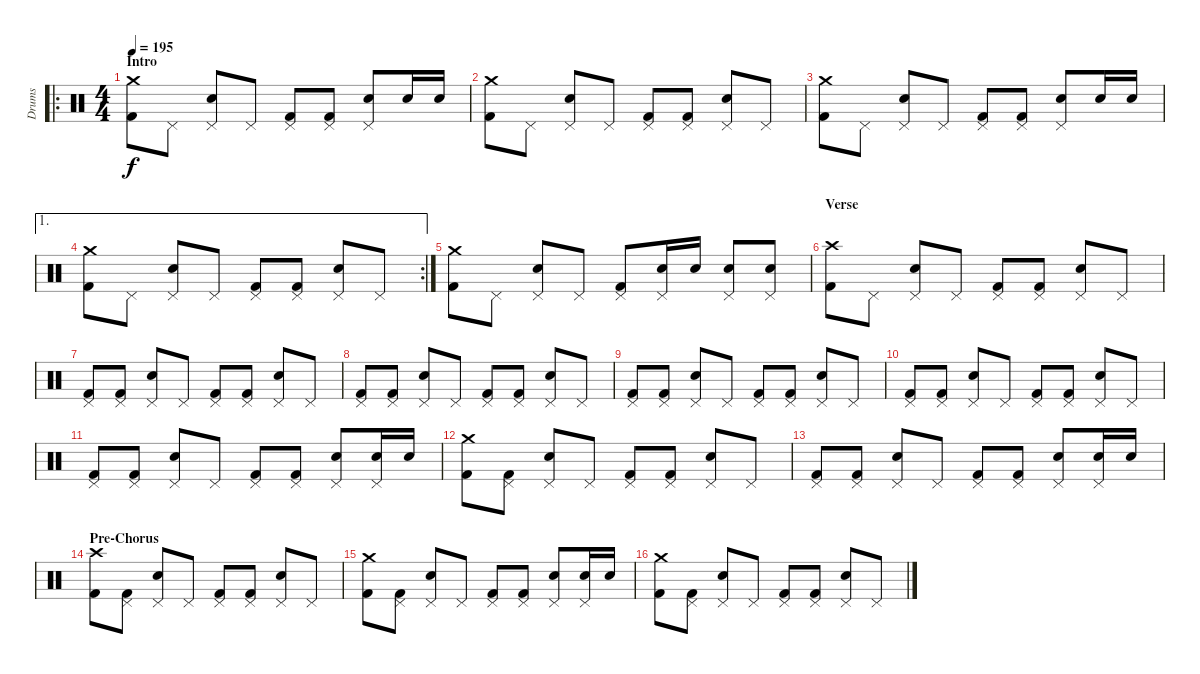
\track ("Drums" "Drums") {instrument percussion}
\staff {score}
\articulation defaults
\ro
\ts (4 4)
\section ("" "Intro")
\tempo 195
\clef neutral
\ks c
("Crash medium (hit)" "Kick (hit) 2").8{dy f} "Pedal Hi-Hat (hit)".8 ("Pedal Hi-Hat (hit)" "Electric Snare (hit)").8 "Pedal Hi-Hat (hit)".8 ("Pedal Hi-Hat (hit)" "Kick (hit) 2").8 ("Pedal Hi-Hat (hit)" "Kick (hit) 2").8 ("Pedal Hi-Hat (hit)" "Electric Snare (hit)").8 "Electric Snare (hit)".16 "Electric Snare (hit)".16 |
("Crash medium (hit)" "Kick (hit) 2").8 "Pedal Hi-Hat (hit)".8 ("Pedal Hi-Hat (hit)" "Electric Snare (hit)").8 "Pedal Hi-Hat (hit)".8 ("Pedal Hi-Hat (hit)" "Kick (hit) 2").8 ("Pedal Hi-Hat (hit)" "Kick (hit) 2").8 ("Pedal Hi-Hat (hit)" "Electric Snare (hit)").8 "Pedal Hi-Hat (hit)".8 |
("Crash medium (hit)" "Kick (hit) 2").8 "Pedal Hi-Hat (hit)".8 ("Pedal Hi-Hat (hit)" "Electric Snare (hit)").8 "Pedal Hi-Hat (hit)".8 ("Pedal Hi-Hat (hit)" "Kick (hit) 2").8 ("Pedal Hi-Hat (hit)" "Kick (hit) 2").8 ("Pedal Hi-Hat (hit)" "Electric Snare (hit)").8 "Electric Snare (hit)".16 "Electric Snare (hit)".16 |
\ae 1
\rc 2
("Crash medium (hit)" "Kick (hit) 2").8 "Pedal Hi-Hat (hit)".8 ("Pedal Hi-Hat (hit)" "Electric Snare (hit)").8 "Pedal Hi-Hat (hit)".8 ("Pedal Hi-Hat (hit)" "Kick (hit) 2").8 ("Pedal Hi-Hat (hit)" "Kick (hit) 2").8 ("Pedal Hi-Hat (hit)" "Electric Snare (hit)").8 "Pedal Hi-Hat (hit)".8 |
("Crash medium (hit)" "Kick (hit) 2").8 "Pedal Hi-Hat (hit)".8 ("Pedal Hi-Hat (hit)" "Electric Snare (hit)").8 "Pedal Hi-Hat (hit)".8 ("Pedal Hi-Hat (hit)" "Kick (hit) 2").8 ("Pedal Hi-Hat (hit)" "Electric Snare (hit)").16 "Electric Snare (hit)".16 ("Pedal Hi-Hat (hit)" "Electric Snare (hit)").8 ("Pedal Hi-Hat (hit)" "Electric Snare (hit)").8 |
\section ("" "Verse")
("Crash high (hit)" "Kick (hit) 2").8 "Pedal Hi-Hat (hit)".8 ("Pedal Hi-Hat (hit)" "Electric Snare (hit)").8 "Pedal Hi-Hat (hit)".8 ("Pedal Hi-Hat (hit)" "Kick (hit) 2").8 ("Pedal Hi-Hat (hit)" "Kick (hit) 2").8 ("Pedal Hi-Hat (hit)" "Electric Snare (hit)").8 "Pedal Hi-Hat (hit)".8 |
("Pedal Hi-Hat (hit)" "Kick (hit) 2").8 ("Pedal Hi-Hat (hit)" "Kick (hit) 2").8 ("Pedal Hi-Hat (hit)" "Electric Snare (hit)").8 "Pedal Hi-Hat (hit)".8 ("Pedal Hi-Hat (hit)" "Kick (hit) 2").8 ("Pedal Hi-Hat (hit)" "Kick (hit) 2").8 ("Pedal Hi-Hat (hit)" "Electric Snare (hit)").8 "Pedal Hi-Hat (hit)".8 |
("Pedal Hi-Hat (hit)" "Kick (hit) 2").8 ("Pedal Hi-Hat (hit)" "Kick (hit) 2").8 ("Pedal Hi-Hat (hit)" "Electric Snare (hit)").8 "Pedal Hi-Hat (hit)".8 ("Pedal Hi-Hat (hit)" "Kick (hit) 2").8 ("Pedal Hi-Hat (hit)" "Kick (hit) 2").8 ("Pedal Hi-Hat (hit)" "Electric Snare (hit)").8 "Pedal Hi-Hat (hit)".8 |
("Pedal Hi-Hat (hit)" "Kick (hit) 2").8 ("Pedal Hi-Hat (hit)" "Kick (hit) 2").8 ("Pedal Hi-Hat (hit)" "Electric Snare (hit)").8 "Pedal Hi-Hat (hit)".8 ("Pedal Hi-Hat (hit)" "Kick (hit) 2").8 ("Pedal Hi-Hat (hit)" "Kick (hit) 2").8 ("Pedal Hi-Hat (hit)" "Electric Snare (hit)").8 "Pedal Hi-Hat (hit)".8 |
("Pedal Hi-Hat (hit)" "Kick (hit) 2").8 ("Pedal Hi-Hat (hit)" "Kick (hit) 2").8 ("Pedal Hi-Hat (hit)" "Electric Snare (hit)").8 "Pedal Hi-Hat (hit)".8 ("Pedal Hi-Hat (hit)" "Kick (hit) 2").8 ("Pedal Hi-Hat (hit)" "Kick (hit) 2").8 ("Pedal Hi-Hat (hit)" "Electric Snare (hit)").8 "Pedal Hi-Hat (hit)".8 |
("Pedal Hi-Hat (hit)" "Kick (hit) 2").8 ("Pedal Hi-Hat (hit)" "Kick (hit) 2").8 ("Pedal Hi-Hat (hit)" "Electric Snare (hit)").8 "Pedal Hi-Hat (hit)".8 ("Pedal Hi-Hat (hit)" "Kick (hit) 2").8 ("Pedal Hi-Hat (hit)" "Kick (hit) 2").8 ("Pedal Hi-Hat (hit)" "Electric Snare (hit)").8 ("Pedal Hi-Hat (hit)" "Electric Snare (hit)").16 "Electric Snare (hit)".16 |
("Crash medium (hit)" "Kick (hit) 2").8 ("Pedal Hi-Hat (hit)" "Kick (hit) 2").8 ("Pedal Hi-Hat (hit)" "Electric Snare (hit)").8 "Pedal Hi-Hat (hit)".8 ("Pedal Hi-Hat (hit)" "Kick (hit) 2").8 ("Pedal Hi-Hat (hit)" "Kick (hit) 2").8 ("Pedal Hi-Hat (hit)" "Electric Snare (hit)").8 "Pedal Hi-Hat (hit)".8 |
("Pedal Hi-Hat (hit)" "Kick (hit) 2").8 ("Pedal Hi-Hat (hit)" "Kick (hit) 2").8 ("Pedal Hi-Hat (hit)" "Electric Snare (hit)").8 "Pedal Hi-Hat (hit)".8 ("Pedal Hi-Hat (hit)" "Kick (hit) 2").8 ("Pedal Hi-Hat (hit)" "Kick (hit) 2").8 ("Pedal Hi-Hat (hit)" "Electric Snare (hit)").8 ("Pedal Hi-Hat (hit)" "Electric Snare (hit)").16 "Electric Snare (hit)".16 |
\section ("" "Pre-Chorus")
("Crash high (hit)" "Kick (hit) 2").8 ("Pedal Hi-Hat (hit)" "Kick (hit) 2").8 ("Pedal Hi-Hat (hit)" "Electric Snare (hit)").8 "Pedal Hi-Hat (hit)".8 ("Pedal Hi-Hat (hit)" "Kick (hit) 2").8 ("Pedal Hi-Hat (hit)" "Kick (hit) 2").8 ("Pedal Hi-Hat (hit)" "Electric Snare (hit)").8 "Pedal Hi-Hat (hit)".8 |
("Crash medium (hit)" "Kick (hit) 2").8 ("Pedal Hi-Hat (hit)" "Kick (hit) 2").8 ("Pedal Hi-Hat (hit)" "Electric Snare (hit)").8 "Pedal Hi-Hat (hit)".8 ("Pedal Hi-Hat (hit)" "Kick (hit) 2").8 ("Pedal Hi-Hat (hit)" "Kick (hit) 2").8 ("Pedal Hi-Hat (hit)" "Electric Snare (hit)").8 ("Pedal Hi-Hat (hit)" "Electric Snare (hit)").16 "Electric Snare (hit)".16 |
("Crash medium (hit)" "Kick (hit) 2").8 ("Pedal Hi-Hat (hit)" "Kick (hit) 2").8 ("Pedal Hi-Hat (hit)" "Electric Snare (hit)").8 "Pedal Hi-Hat (hit)".8 ("Pedal Hi-Hat (hit)" "Kick (hit) 2").8 ("Pedal Hi-Hat (hit)" "Kick (hit) 2").8 ("Pedal Hi-Hat (hit)" "Electric Snare (hit)").8 "Pedal Hi-Hat (hit)".8
